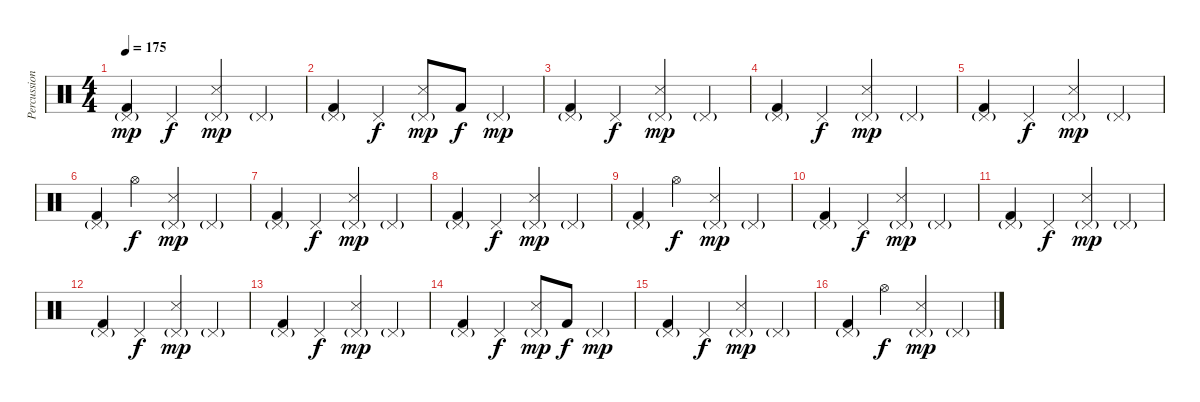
\track ("Percussion" "Percussion") {instrument percussion}
\staff {score}
\articulation defaults
\ts (4 4)
\tempo 175
\clef neutral
\ks c
("Pedal Hi-Hat (hit)"{g} "Kick (hit) 2").4{dy mp} "Pedal Hi-Hat (hit)".4{dy f} ("Pedal Hi-Hat (hit)"{g} "Snare (side stick) 3").4{dy mp} "Pedal Hi-Hat (hit)"{g}.4 |
("Pedal Hi-Hat (hit)"{g} "Kick (hit) 2").4 "Pedal Hi-Hat (hit)".4{dy f} ("Pedal Hi-Hat (hit)"{g} "Snare (side stick) 3").8{dy mp} "Kick (hit) 2".8{dy f} "Pedal Hi-Hat (hit)"{g}.4{dy mp} |
("Pedal Hi-Hat (hit)"{g} "Kick (hit) 2").4 "Pedal Hi-Hat (hit)".4{dy f} ("Pedal Hi-Hat (hit)"{g} "Snare (side stick) 3").4{dy mp} "Pedal Hi-Hat (hit)"{g}.4 |
("Pedal Hi-Hat (hit)"{g} "Kick (hit) 2").4 "Pedal Hi-Hat (hit)".4{dy f} ("Pedal Hi-Hat (hit)"{g} "Snare (side stick) 3").4{dy mp} "Pedal Hi-Hat (hit)"{g}.4 |
("Pedal Hi-Hat (hit)"{g} "Kick (hit) 2").4 "Pedal Hi-Hat (hit)".4{dy f} ("Pedal Hi-Hat (hit)"{g} "Snare (side stick) 3").4{dy mp} "Pedal Hi-Hat (hit)"{g}.4 |
("Pedal Hi-Hat (hit)"{g} "Kick (hit) 2").4 "Hi-Hat (open)".4{dy f} ("Pedal Hi-Hat (hit)"{g} "Snare (side stick) 3").4{dy mp} "Pedal Hi-Hat (hit)"{g}.4 |
("Pedal Hi-Hat (hit)"{g} "Kick (hit) 2").4 "Pedal Hi-Hat (hit)".4{dy f} ("Pedal Hi-Hat (hit)"{g} "Snare (side stick) 3").4{dy mp} "Pedal Hi-Hat (hit)"{g}.4 |
("Pedal Hi-Hat (hit)"{g} "Kick (hit) 2").4 "Pedal Hi-Hat (hit)".4{dy f} ("Pedal Hi-Hat (hit)"{g} "Snare (side stick) 3").4{dy mp} "Pedal Hi-Hat (hit)"{g}.4 |
("Pedal Hi-Hat (hit)"{g} "Kick (hit) 2").4 "Hi-Hat (open)".4{dy f} ("Pedal Hi-Hat (hit)"{g} "Snare (side stick) 3").4{dy mp} "Pedal Hi-Hat (hit)"{g}.4 |
("Pedal Hi-Hat (hit)"{g} "Kick (hit) 2").4 "Pedal Hi-Hat (hit)".4{dy f} ("Pedal Hi-Hat (hit)"{g} "Snare (side stick) 3").4{dy mp} "Pedal Hi-Hat (hit)"{g}.4 |
("Pedal Hi-Hat (hit)"{g} "Kick (hit) 2").4 "Pedal Hi-Hat (hit)".4{dy f} ("Pedal Hi-Hat (hit)"{g} "Snare (side stick) 3").4{dy mp} "Pedal Hi-Hat (hit)"{g}.4 |
("Pedal Hi-Hat (hit)"{g} "Kick (hit) 2").4 "Pedal Hi-Hat (hit)".4{dy f} ("Pedal Hi-Hat (hit)"{g} "Snare (side stick) 3").4{dy mp} "Pedal Hi-Hat (hit)"{g}.4 |
("Pedal Hi-Hat (hit)"{g} "Kick (hit) 2").4 "Pedal Hi-Hat (hit)".4{dy f} ("Pedal Hi-Hat (hit)"{g} "Snare (side stick) 3").4{dy mp} "Pedal Hi-Hat (hit)"{g}.4 |
("Pedal Hi-Hat (hit)"{g} "Kick (hit) 2").4 "Pedal Hi-Hat (hit)".4{dy f} ("Pedal Hi-Hat (hit)"{g} "Snare (side stick) 3").8{dy mp} "Kick (hit) 2".8{dy f} "Pedal Hi-Hat (hit)"{g}.4{dy mp} |
("Pedal Hi-Hat (hit)"{g} "Kick (hit) 2").4 "Pedal Hi-Hat (hit)".4{dy f} ("Pedal Hi-Hat (hit)"{g} "Snare (side stick) 3").4{dy mp} "Pedal Hi-Hat (hit)"{g}.4 |
("Pedal Hi-Hat (hit)"{g} "Kick (hit) 2").4 "Hi-Hat (open)".4{dy f} ("Pedal Hi-Hat (hit)"{g} "Snare (side stick) 3").4{dy mp} "Pedal Hi-Hat (hit)"{g}.4
